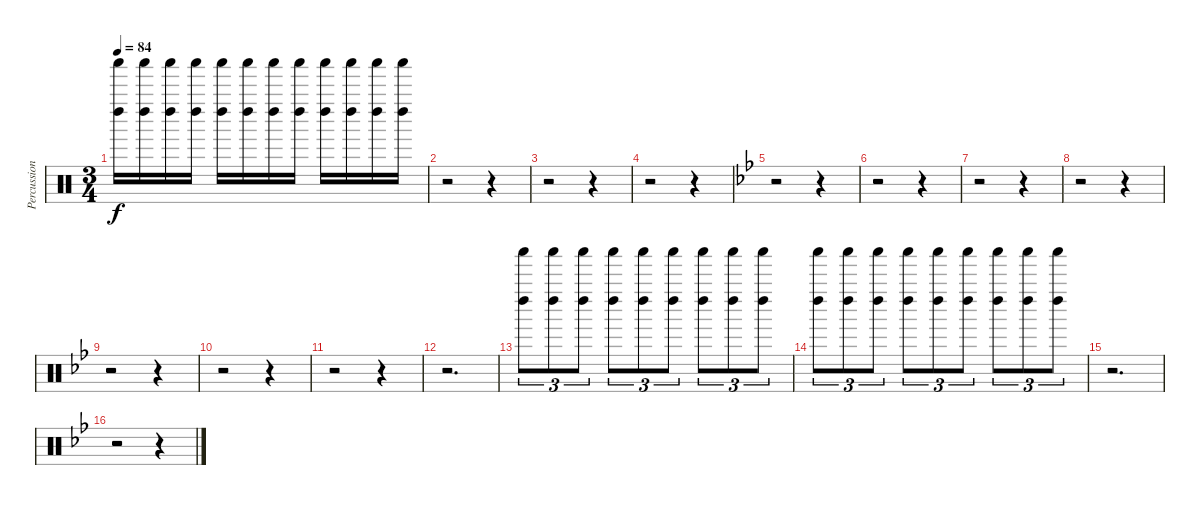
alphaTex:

\track ("Percussion" "Percussion") {instrument percussion}
\staff {score}
\articulation defaults
\ts (3 4)
\tempo 84
\clef neutral
\ks c
("Left Maraca (hit)" "Shaker (hit)").16{dy f} ("Left Maraca (hit)" "Shaker (hit)").16 ("Left Maraca (hit)" "Shaker (hit)").16 ("Left Maraca (hit)" "Shaker (hit)").16 ("Left Maraca (hit)" "Shaker (hit)").16 ("Left Maraca (hit)" "Shaker (hit)").16 ("Left Maraca (hit)" "Shaker (hit)").16 ("Left Maraca (hit)" "Shaker (hit)").16 ("Left Maraca (hit)" "Shaker (hit)").16 ("Left Maraca (hit)" "Shaker (hit)").16 ("Left Maraca (hit)" "Shaker (hit)").16 ("Left Maraca (hit)" "Shaker (hit)").16 |
r.2 r.4 |
r.2 r.4 |
r.2 r.4 |
\ks gminor
r.2 r.4 |
r.2 r.4 |
r.2 r.4 |
r.2 r.4 |
r.2 r.4 |
r.2 r.4 |
r.2 r.4 |
r.2{d volume 7} |
("Shaker (hit)" "Left Maraca (hit)").8{tu (3 2) volume 0} ("Shaker (hit)" "Left Maraca (hit)").8{tu (3 2)} ("Shaker (hit)" "Left Maraca (hit)").8{tu (3 2)} ("Shaker (hit)" "Left Maraca (hit)").8{tu (3 2)} ("Shaker (hit)" "Left Maraca (hit)").8{tu (3 2)} ("Shaker (hit)" "Left Maraca (hit)").8{tu (3 2)} ("Shaker (hit)" "Left Maraca (hit)").8{tu (3 2)} ("Shaker (hit)" "Left Maraca (hit)").8{tu (3 2)} ("Shaker (hit)" "Left Maraca (hit)").8{tu (3 2)} |
("Shaker (hit)" "Left Maraca (hit)").8{tu (3 2)} ("Shaker (hit)" "Left Maraca (hit)").8{tu (3 2)} ("Shaker (hit)" "Left Maraca (hit)").8{tu (3 2)} ("Shaker (hit)" "Left Maraca (hit)").8{tu (3 2)} ("Shaker (hit)" "Left Maraca (hit)").8{tu (3 2)} ("Shaker (hit)" "Left Maraca (hit)").8{tu (3 2)} ("Shaker (hit)" "Left Maraca (hit)").8{tu (3 2)} ("Shaker (hit)" "Left Maraca (hit)").8{tu (3 2)} ("Shaker (hit)" "Left Maraca (hit)").8{tu (3 2)} |
r.2{d volume 7} |
r.2 r.4
